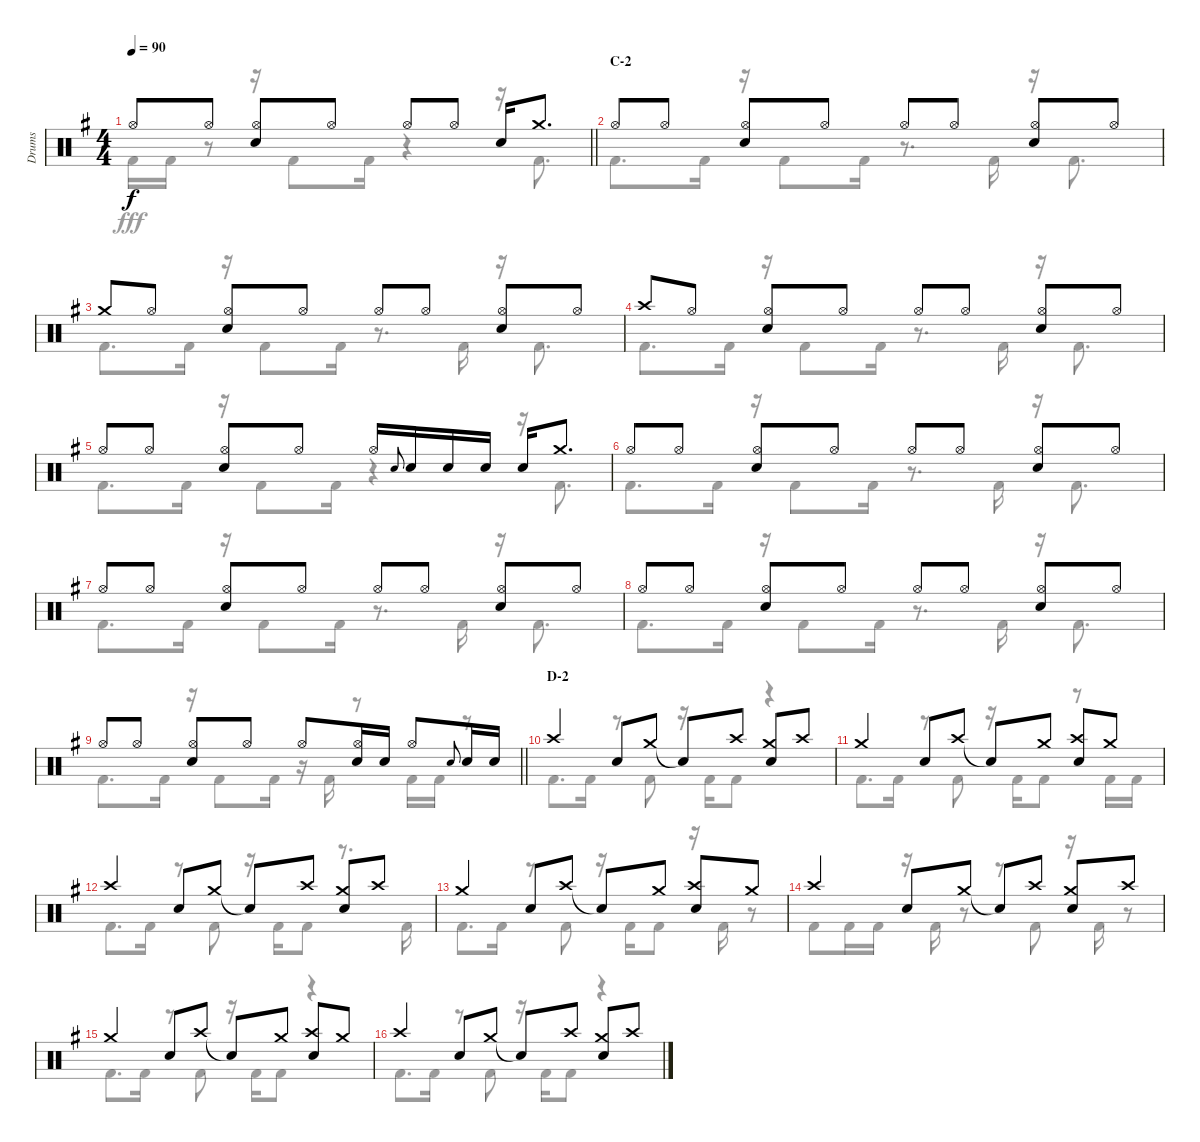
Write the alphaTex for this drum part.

\track ("Drums" "Drums") {instrument percussion}
\staff {score}
\articulation defaults
\voice
\ts (4 4)
\tempo 90
\clef neutral
\barLineRight lightlight
\ks g "Hi-Hat (open)".8{dy f} "Hi-Hat (open)".8
("Hi-Hat (open)" "Snare (hit) 2").8 "Hi-Hat (open)".8 "Hi-Hat (open)".8 "Hi-Hat (open)".8 "Snare (hit) 2".16 "Crash medium (hit)".8{d} |
\section ("" "C-2")
"Hi-Hat (open)".8 "Hi-Hat (open)".8 ("Hi-Hat (open)" "Snare (hit) 2").8 "Hi-Hat (open)".8 "Hi-Hat (open)".8 "Hi-Hat (open)".8 ("Hi-Hat (open)" "Snare (hit) 2").8 "Hi-Hat (open)".8 |
"Crash medium (hit)".8 "Hi-Hat (open)".8 ("Hi-Hat (open)" "Snare (hit) 2").8 "Hi-Hat (open)".8 "Hi-Hat (open)".8 "Hi-Hat (open)".8 ("Hi-Hat (open)" "Snare (hit) 2").8 "Hi-Hat (open)".8 |
"Crash high (hit)".8 "Hi-Hat (open)".8 ("Hi-Hat (open)" "Snare (hit) 2").8 "Hi-Hat (open)".8 "Hi-Hat (open)".8 "Hi-Hat (open)".8 ("Hi-Hat (open)" "Snare (hit) 2").8 "Hi-Hat (open)".8 |
"Hi-Hat (open)".8 "Hi-Hat (open)".8 ("Hi-Hat (open)" "Snare (hit) 2").8 "Hi-Hat (open)".8 "Hi-Hat (open)".16 "Snare (hit) 2".8{gr onbeat} "Snare (hit) 2".16 "Snare (hit) 2".16 "Snare (hit) 2".16 "Snare (hit) 2".16 "Crash medium (hit)".8{d} |
"Hi-Hat (open)".8 "Hi-Hat (open)".8 ("Hi-Hat (open)" "Snare (hit) 2").8 "Hi-Hat (open)".8 "Hi-Hat (open)".8 "Hi-Hat (open)".8 ("Hi-Hat (open)" "Snare (hit) 2").8 "Hi-Hat (open)".8 |
"Hi-Hat (open)".8 "Hi-Hat (open)".8 ("Hi-Hat (open)" "Snare (hit) 2").8 "Hi-Hat (open)".8 "Hi-Hat (open)".8 "Hi-Hat (open)".8 ("Hi-Hat (open)" "Snare (hit) 2").8 "Hi-Hat (open)".8 |
"Hi-Hat (open)".8 "Hi-Hat (open)".8 ("Hi-Hat (open)" "Snare (hit) 2").8 "Hi-Hat (open)".8 "Hi-Hat (open)".8 "Hi-Hat (open)".8 ("Hi-Hat (open)" "Snare (hit) 2").8 "Hi-Hat (open)".8 |
\barLineRight lightlight "Hi-Hat (open)".8 "Hi-Hat (open)".8
("Hi-Hat (open)" "Snare (hit) 2").8 "Hi-Hat (open)".8 "Hi-Hat (open)".8 ("Hi-Hat (open)" "Snare (hit) 2").16 "Snare (hit) 2".16 "Hi-Hat (open)".8 "Snare (hit) 2".8{gr onbeat} "Snare (hit) 2".16 "Snare (hit) 2".16 |
\section ("" "D-2")
"Crash high (hit)".4 "Snare (hit) 2".8 "Crash medium (hit)".8 "Snare (hit)"{t}.8 "Crash high (hit)".8 ("Crash medium (hit)" "Snare (hit) 2").8 "Crash high (hit)".8 |
"Crash medium (hit)".4 "Snare (hit) 2".8 "Crash high (hit)".8 "Snare (hit)"{t}.8 "Crash medium (hit)".8 ("Crash high (hit)" "Snare (hit) 2").8 "Crash medium (hit)".8 |
"Crash high (hit)".4 "Snare (hit) 2".8 "Crash medium (hit)".8 "Snare (hit)"{t}.8 "Crash high (hit)".8 ("Crash medium (hit)" "Snare (hit) 2").8 "Crash high (hit)".8 |
"Crash medium (hit)".4 "Snare (hit) 2".8 "Crash high (hit)".8 "Snare (hit)"{t}.8 "Crash medium (hit)".8 ("Crash high (hit)" "Snare (hit) 2").8 "Crash medium (hit)".8 |
"Crash high (hit)".4 "Snare (hit) 2".8 "Crash medium (hit)".8 "Snare (hit)"{t}.8 "Crash high (hit)".8 ("Crash medium (hit)" "Snare (hit) 2").8 "Crash high (hit)".8 |
"Crash medium (hit)".4 "Snare (hit) 2".8 "Crash high (hit)".8 "Snare (hit)"{t}.8 "Crash medium (hit)".8 ("Crash high (hit)" "Snare (hit) 2").8 "Crash medium (hit)".8 |
"Crash high (hit)".4 "Snare (hit) 2".8 "Crash medium (hit)".8 "Snare (hit)"{t}.8 "Crash high (hit)".8 ("Crash medium (hit)" "Snare (hit) 2").8 "Crash high (hit)".8
\voice
\clef neutral
\ottava regular
\simile none
\barLineRight lightlight
\ks g "Kick (hit) 2".16{dy fff} "Kick (hit) 2".16
r.8 r.16 "Kick (hit) 2".8 "Kick (hit) 2".16 r.4 r.16 "Kick (hit) 2".8{d} |
"Kick (hit) 2".8{d} "Kick (hit) 2".16 r.16 "Kick (hit) 2".8 "Kick (hit) 2".16 r.8{d} "Kick (hit) 2".16 r.16 "Kick (hit) 2".8{d} |
"Kick (hit) 2".8{d} "Kick (hit) 2".16 r.16 "Kick (hit) 2".8 "Kick (hit) 2".16 r.8{d} "Kick (hit) 2".16 r.16 "Kick (hit) 2".8{d} |
"Kick (hit) 2".8{d} "Kick (hit) 2".16 r.16 "Kick (hit) 2".8 "Kick (hit) 2".16 r.8{d} "Kick (hit) 2".16 r.16 "Kick (hit) 2".8{d} |
"Kick (hit) 2".8{d} "Kick (hit) 2".16 r.16 "Kick (hit) 2".8 "Kick (hit) 2".16 r.4 r.16 "Kick (hit) 2".8{d} |
"Kick (hit) 2".8{d} "Kick (hit) 2".16 r.16 "Kick (hit) 2".8 "Kick (hit) 2".16 r.8{d} "Kick (hit) 2".16 r.16 "Kick (hit) 2".8{d} |
"Kick (hit) 2".8{d} "Kick (hit) 2".16 r.16 "Kick (hit) 2".8 "Kick (hit) 2".16 r.8{d} "Kick (hit) 2".16 r.16 "Kick (hit) 2".8{d} |
"Kick (hit) 2".8{d} "Kick (hit) 2".16 r.16 "Kick (hit) 2".8 "Kick (hit) 2".16 r.8{d} "Kick (hit) 2".16 r.16 "Kick (hit) 2".8{d} |
\barLineRight lightlight "Kick (hit) 2".8{d} "Kick (hit) 2".16
r.16 "Kick (hit) 2".8 "Kick (hit) 2".16 r.16 "Kick (hit) 2".16 r.8 "Kick (hit) 2".16 "Kick (hit) 2".16 r.8 |
"Kick (hit) 2".8{d} "Kick (hit) 2".16 r.8 "Kick (hit) 2".8 r.16 "Kick (hit) 2".16 "Kick (hit) 2".8 r.4 |
"Kick (hit) 2".8{d} "Kick (hit) 2".16 r.8 "Kick (hit) 2".8 r.16 "Kick (hit) 2".16 "Kick (hit) 2".8 r.8 "Kick (hit) 2".16 "Kick (hit) 2".16 |
"Kick (hit) 2".8{d} "Kick (hit) 2".16 r.8 "Kick (hit) 2".8 r.16 "Kick (hit) 2".16 "Kick (hit) 2".8 r.8{d} "Kick (hit) 2".16 |
"Kick (hit) 2".8{d} "Kick (hit) 2".16 r.8 "Kick (hit) 2".8 r.16 "Kick (hit) 2".16 "Kick (hit) 2".8 r.16 "Kick (hit) 2".16 r.8 |
"Kick (hit) 2".8 "Kick (hit) 2".16 "Kick (hit) 2".16 r.16 "Kick (hit) 2".16 r.8 r.8 "Kick (hit) 2".8 r.16 "Kick (hit) 2".16 r.8 |
"Kick (hit) 2".8{d} "Kick (hit) 2".16 r.8 "Kick (hit) 2".8 r.16 "Kick (hit) 2".16 "Kick (hit) 2".8 r.4 |
"Kick (hit) 2".8{d} "Kick (hit) 2".16 r.8 "Kick (hit) 2".8 r.16 "Kick (hit) 2".16 "Kick (hit) 2".8 r.4
